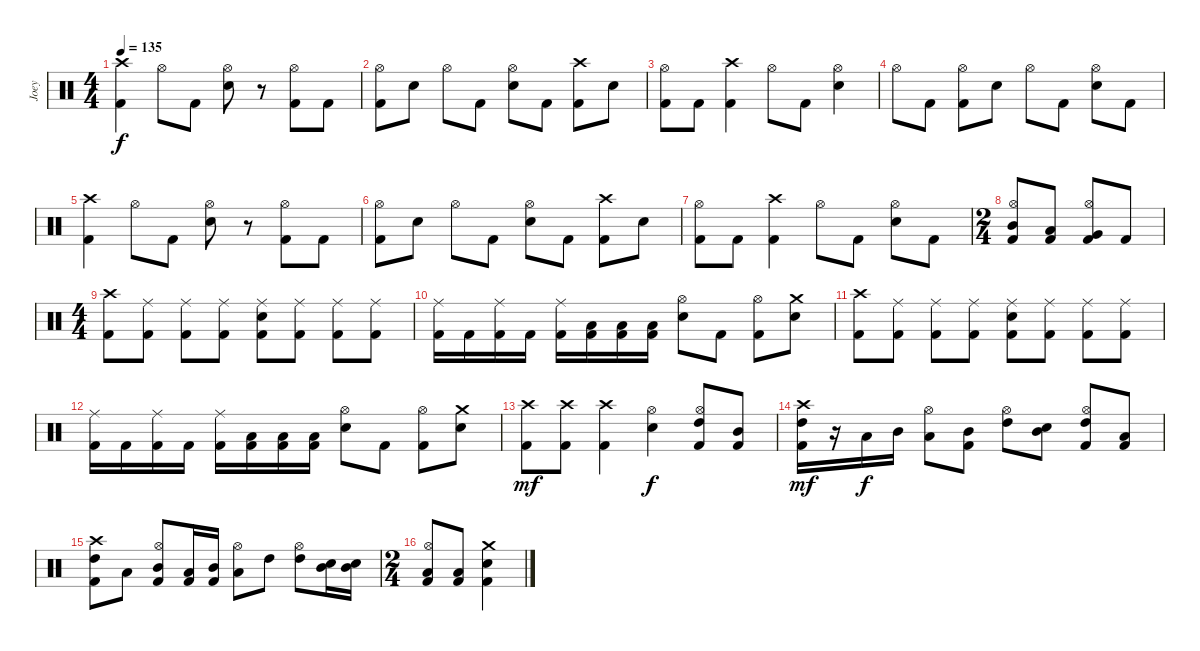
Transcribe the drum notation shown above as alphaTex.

\track ("Joey" "Joey") {instrument percussion}
\staff {score}
\articulation defaults
\ts (4 4)
\tempo 135
\clef neutral
\ks c
("Crash high (hit)" "Kick (hit) 2").4{dy f} "Hi-Hat (open)".8 "Kick (hit) 2".8 ("Hi-Hat (open)" "Electric Snare (hit)").8 r.8 ("Hi-Hat (open)" "Kick (hit) 2").8 "Kick (hit) 2".8 |
("Hi-Hat (open)" "Kick (hit) 2").8 "Electric Snare (hit)".8 "Hi-Hat (open)".8 "Kick (hit) 2".8 ("Hi-Hat (open)" "Electric Snare (hit)").8 "Kick (hit) 2".8 ("Crash high (hit)" "Kick (hit) 2").8 "Electric Snare (hit)".8 |
("Hi-Hat (open)" "Kick (hit) 2").8 "Kick (hit) 2".8 ("Crash high (hit)" "Kick (hit) 2").4 "Hi-Hat (open)".8 "Kick (hit) 2".8 ("Hi-Hat (open)" "Electric Snare (hit)").4 |
"Hi-Hat (open)".8 "Kick (hit) 2".8 ("Hi-Hat (open)" "Kick (hit) 2").8 "Electric Snare (hit)".8 "Hi-Hat (open)".8 "Kick (hit) 2".8 ("Hi-Hat (open)" "Electric Snare (hit)").8 "Kick (hit) 2".8 |
("Crash high (hit)" "Kick (hit) 2").4 "Hi-Hat (open)".8 "Kick (hit) 2".8 ("Hi-Hat (open)" "Electric Snare (hit)").8 r.8 ("Hi-Hat (open)" "Kick (hit) 2").8 "Kick (hit) 2".8 |
("Hi-Hat (open)" "Kick (hit) 2").8 "Electric Snare (hit)".8 "Hi-Hat (open)".8 "Kick (hit) 2".8 ("Hi-Hat (open)" "Electric Snare (hit)").8 "Kick (hit) 2".8 ("Crash high (hit)" "Kick (hit) 2").8 "Electric Snare (hit)".8 |
("Hi-Hat (open)" "Kick (hit) 2").8 "Kick (hit) 2".8 ("Crash high (hit)" "Kick (hit) 2").4 "Hi-Hat (open)".8 "Kick (hit) 2".8 ("Hi-Hat (open)" "Electric Snare (hit)").8 "Kick (hit) 2".8 |
\ts (2 4)
("Hi-Hat (open)" "Mid Tom (hit)" "Kick (hit) 2").8 ("Low Tom (hit)" "Kick (hit) 2").8 ("Hi-Hat (open)" "Very Low Tom (hit)" "Kick (hit) 2").8 "Kick (hit) 2".8 |
\ts (4 4)
("Crash high (hit)" "Kick (hit) 2").8 ("Ride (middle)" "Kick (hit) 2").8 ("Ride (middle)" "Kick (hit) 2").8 ("Ride (middle)" "Kick (hit) 2").8 ("Ride (middle)" "Electric Snare (hit)" "Kick (hit) 2").8 ("Ride (middle)" "Kick (hit) 2").8 ("Ride (middle)" "Kick (hit) 2").8 ("Ride (middle)" "Kick (hit) 2").8 |
("Ride (middle)" "Kick (hit) 2").16 "Kick (hit) 2".16 ("Ride (middle)" "Kick (hit) 2").16 "Kick (hit) 2".16 ("Ride (middle)" "Kick (hit) 2").16 ("Low Tom (hit)" "Kick (hit) 2").16 ("Low Tom (hit)" "Kick (hit) 2").16 ("Low Tom (hit)" "Kick (hit) 2").16 ("Hi-Hat (open)" "Electric Snare (hit)").8 "Kick (hit) 2".8 ("Hi-Hat (open)" "Kick (hit) 2").8 ("Crash medium (hit)" "Electric Snare (hit)").8 |
("Crash high (hit)" "Kick (hit) 2").8 ("Ride (middle)" "Kick (hit) 2").8 ("Ride (middle)" "Kick (hit) 2").8 ("Ride (middle)" "Kick (hit) 2").8 ("Ride (middle)" "Electric Snare (hit)" "Kick (hit) 2").8 ("Ride (middle)" "Kick (hit) 2").8 ("Ride (middle)" "Kick (hit) 2").8 ("Ride (middle)" "Kick (hit) 2").8 |
("Ride (middle)" "Kick (hit) 2").16 "Kick (hit) 2".16 ("Ride (middle)" "Kick (hit) 2").16 "Kick (hit) 2".16 ("Ride (middle)" "Kick (hit) 2").16 ("Low Tom (hit)" "Kick (hit) 2").16 ("Low Tom (hit)" "Kick (hit) 2").16 ("Low Tom (hit)" "Kick (hit) 2").16 ("Hi-Hat (open)" "Electric Snare (hit)").8 "Kick (hit) 2".8 ("Hi-Hat (open)" "Kick (hit) 2").8 ("Crash medium (hit)" "Electric Snare (hit)").8 |
("Crash high (hit)" "Kick (hit) 2").8{dy mf} ("Crash high (hit)" "Kick (hit) 2").8 ("Crash high (hit)" "Kick (hit) 2").4 ("Hi-Hat (open)" "Electric Snare (hit)").4{dy f} ("Hi-Hat (open)" "High Tom (hit)" "Kick (hit) 2").8 ("Mid Tom (hit)" "Kick (hit) 2").8 |
("Crash high (hit)" "High Tom (hit)" "Kick (hit) 2").16{dy mf} r.16 "Low Tom (hit)".16{dy f} "Mid Tom (hit)".16 ("Hi-Hat (open)" "Low Tom (hit)").8 ("Mid Tom (hit)" "Kick (hit) 2").8 ("Hi-Hat (open)" "High Tom (hit)").8 ("Mid Tom (hit)" "Electric Snare (hit)").8 ("Hi-Hat (open)" "High Tom (hit)" "Kick (hit) 2").8 ("Low Tom (hit)" "Kick (hit) 2").8 |
("Crash high (hit)" "High Tom (hit)" "Kick (hit) 2").8 "Low Tom (hit)".8 ("Hi-Hat (open)" "Mid Tom (hit)" "Kick (hit) 2").8 ("Low Tom (hit)" "Kick (hit) 2").16 ("Mid Tom (hit)" "Kick (hit) 2").16 ("Hi-Hat (open)" "Low Tom (hit)").8 "High Tom (hit)".8 ("Hi-Hat (open)" "High Tom (hit)").8 ("Mid Tom (hit)" "Electric Snare (hit)").16 ("Mid Tom (hit)" "Electric Snare (hit)").16 |
\ts (2 4)
("Hi-Hat (open)" "Low Tom (hit)" "Kick (hit) 2").8 ("Low Tom (hit)" "Kick (hit) 2").8 ("Crash medium (hit)" "Electric Snare (hit)" "Kick (hit) 2").4
